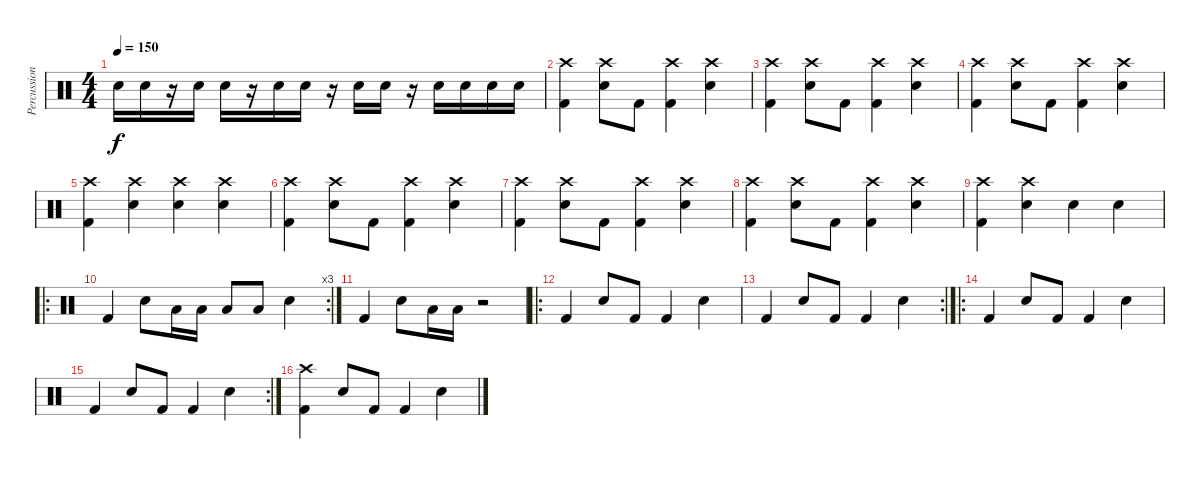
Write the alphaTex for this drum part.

\track ("Percussions" "Percussion") {instrument percussion}
\staff {score}
\articulation defaults
\ts (4 4)
\tempo 150
\clef neutral
\ks c "Snare (hit) 2".16{dy f} "Snare (hit) 2".16
r.16 "Snare (hit) 2".16 "Snare (hit) 2".16 r.16 "Snare (hit) 2".16 "Snare (hit) 2".16 r.16 "Snare (hit) 2".16 "Snare (hit) 2".16 r.16 "Snare (hit) 2".16 "Snare (hit) 2".16 "Snare (hit) 2".16 "Snare (hit) 2".16 |
("Kick (hit) 2" "Crash high (hit)").4 ("Snare (hit) 2" "Crash high (hit)").8 "Kick (hit) 2".8 ("Kick (hit) 2" "Crash high (hit)").4 ("Snare (hit) 2" "Crash high (hit)").4 |
("Kick (hit) 2" "Crash high (hit)").4 ("Snare (hit) 2" "Crash high (hit)").8 "Kick (hit) 2".8 ("Kick (hit) 2" "Crash high (hit)").4 ("Snare (hit) 2" "Crash high (hit)").4 |
("Kick (hit) 2" "Crash high (hit)").4 ("Snare (hit) 2" "Crash high (hit)").8 "Kick (hit) 2".8 ("Kick (hit) 2" "Crash high (hit)").4 ("Snare (hit) 2" "Crash high (hit)").4 |
("Kick (hit) 2" "Crash high (hit)").4 ("Snare (hit) 2" "Crash high (hit)").4 ("Snare (hit) 2" "Crash high (hit)").4 ("Snare (hit) 2" "Crash high (hit)").4 |
("Kick (hit) 2" "Crash high (hit)").4 ("Snare (hit) 2" "Crash high (hit)").8 "Kick (hit) 2".8 ("Kick (hit) 2" "Crash high (hit)").4 ("Snare (hit) 2" "Crash high (hit)").4 |
("Kick (hit) 2" "Crash high (hit)").4 ("Snare (hit) 2" "Crash high (hit)").8 "Kick (hit) 2".8 ("Kick (hit) 2" "Crash high (hit)").4 ("Snare (hit) 2" "Crash high (hit)").4 |
("Kick (hit) 2" "Crash high (hit)").4 ("Snare (hit) 2" "Crash high (hit)").8 "Kick (hit) 2".8 ("Kick (hit) 2" "Crash high (hit)").4 ("Snare (hit) 2" "Crash high (hit)").4 |
("Kick (hit) 2" "Crash high (hit)").4 ("Snare (hit) 2" "Crash high (hit)").4 "Snare (hit) 2".4 "Snare (hit) 2".4 |
\ro
\rc 3 "Kick (hit) 2".4 "Snare (hit) 2".8 "Low Floor Tom (hit)".16 "Low Floor Tom (hit)".16 "Low Floor Tom (hit)".8 "Low Floor Tom (hit)".8 "Snare (hit) 2".4
|
"Kick (hit) 2".4 "Snare (hit) 2".8 "Low Floor Tom (hit)".16 "Low Floor Tom (hit)".16 r.2 |
\ro "Kick (hit) 2".4 "Snare (hit) 2".8 "Kick (hit) 2".8 "Kick (hit) 2".4 "Snare (hit) 2".4
|
\rc 2 "Kick (hit) 2".4 "Snare (hit) 2".8 "Kick (hit) 2".8 "Kick (hit) 2".4 "Snare (hit) 2".4
|
\ro "Kick (hit) 2".4 "Snare (hit) 2".8 "Kick (hit) 2".8 "Kick (hit) 2".4 "Snare (hit) 2".4
|
\rc 2 "Kick (hit) 2".4 "Snare (hit) 2".8 "Kick (hit) 2".8 "Kick (hit) 2".4 "Snare (hit) 2".4
|
("Kick (hit) 2" "Crash high (hit)").4 "Snare (hit) 2".8 "Kick (hit) 2".8 "Kick (hit) 2".4 "Snare (hit) 2".4
